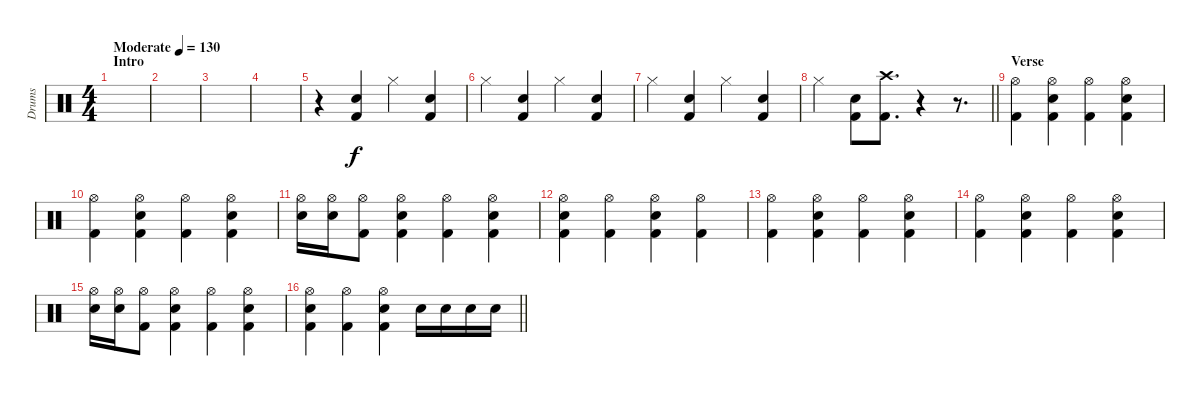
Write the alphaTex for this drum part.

\track ("Drums" "Drums") {instrument percussion}
\staff {score}
\articulation defaults
\ts (4 4)
\section ("" "Intro")
\tempo (130 "Moderate")
\clef neutral
\ks c
|
|
|
|
r.4 ("Snare (hit) 2" "Kick (hit) 2").4 "Hi-Hat (closed)".4 ("Snare (hit) 2" "Kick (hit) 2").4 |
"Hi-Hat (closed)".4 ("Snare (hit) 2" "Kick (hit) 2").4 "Hi-Hat (closed)".4 ("Snare (hit) 2" "Kick (hit) 2").4 |
"Hi-Hat (closed)".4 ("Snare (hit) 2" "Kick (hit) 2").4 "Hi-Hat (closed)".4 ("Snare (hit) 2" "Kick (hit) 2").4 |
\barLineRight lightlight "Hi-Hat (closed)".4
("Snare (hit) 2" "Kick (hit) 2").8 ("Crash high (hit)" "Kick (hit) 2").8{d} r.4 r.8{d} |
\section ("" "Verse")
("Hi-Hat (open)" "Kick (hit) 2").4 ("Hi-Hat (open)" "Snare (hit) 2" "Kick (hit) 2").4 ("Hi-Hat (open)" "Kick (hit) 2").4 ("Hi-Hat (open)" "Snare (hit) 2" "Kick (hit) 2").4 |
("Hi-Hat (open)" "Kick (hit) 2").4 ("Hi-Hat (open)" "Snare (hit) 2" "Kick (hit) 2").4 ("Hi-Hat (open)" "Kick (hit) 2").4 ("Hi-Hat (open)" "Snare (hit) 2" "Kick (hit) 2").4 |
("Hi-Hat (open)" "Snare (hit) 2").16 ("Hi-Hat (open)" "Snare (hit) 2").16 ("Hi-Hat (open)" "Kick (hit) 2").8 ("Hi-Hat (open)" "Snare (hit) 2" "Kick (hit) 2").4 ("Hi-Hat (open)" "Kick (hit) 2").4 ("Hi-Hat (open)" "Snare (hit) 2" "Kick (hit) 2").4 |
("Hi-Hat (open)" "Snare (hit) 2" "Kick (hit) 2").4 ("Hi-Hat (open)" "Kick (hit) 2").4 ("Hi-Hat (open)" "Snare (hit) 2" "Kick (hit) 2").4 ("Hi-Hat (open)" "Kick (hit) 2").4 |
("Hi-Hat (open)" "Kick (hit) 2").4 ("Hi-Hat (open)" "Snare (hit) 2" "Kick (hit) 2").4 ("Hi-Hat (open)" "Kick (hit) 2").4 ("Hi-Hat (open)" "Snare (hit) 2" "Kick (hit) 2").4 |
("Hi-Hat (open)" "Kick (hit) 2").4 ("Hi-Hat (open)" "Snare (hit) 2" "Kick (hit) 2").4 ("Hi-Hat (open)" "Kick (hit) 2").4 ("Hi-Hat (open)" "Snare (hit) 2" "Kick (hit) 2").4 |
("Hi-Hat (open)" "Snare (hit) 2").16 ("Hi-Hat (open)" "Snare (hit) 2").16 ("Hi-Hat (open)" "Kick (hit) 2").8 ("Hi-Hat (open)" "Snare (hit) 2" "Kick (hit) 2").4 ("Hi-Hat (open)" "Kick (hit) 2").4 ("Hi-Hat (open)" "Snare (hit) 2" "Kick (hit) 2").4 |
\barLineRight lightlight
("Hi-Hat (open)" "Snare (hit) 2" "Kick (hit) 2").4 ("Hi-Hat (open)" "Kick (hit) 2").4 ("Hi-Hat (open)" "Snare (hit) 2" "Kick (hit) 2").4 "Snare (hit) 2".16 "Snare (hit) 2".16 "Snare (hit) 2".16 "Snare (hit) 2".16
